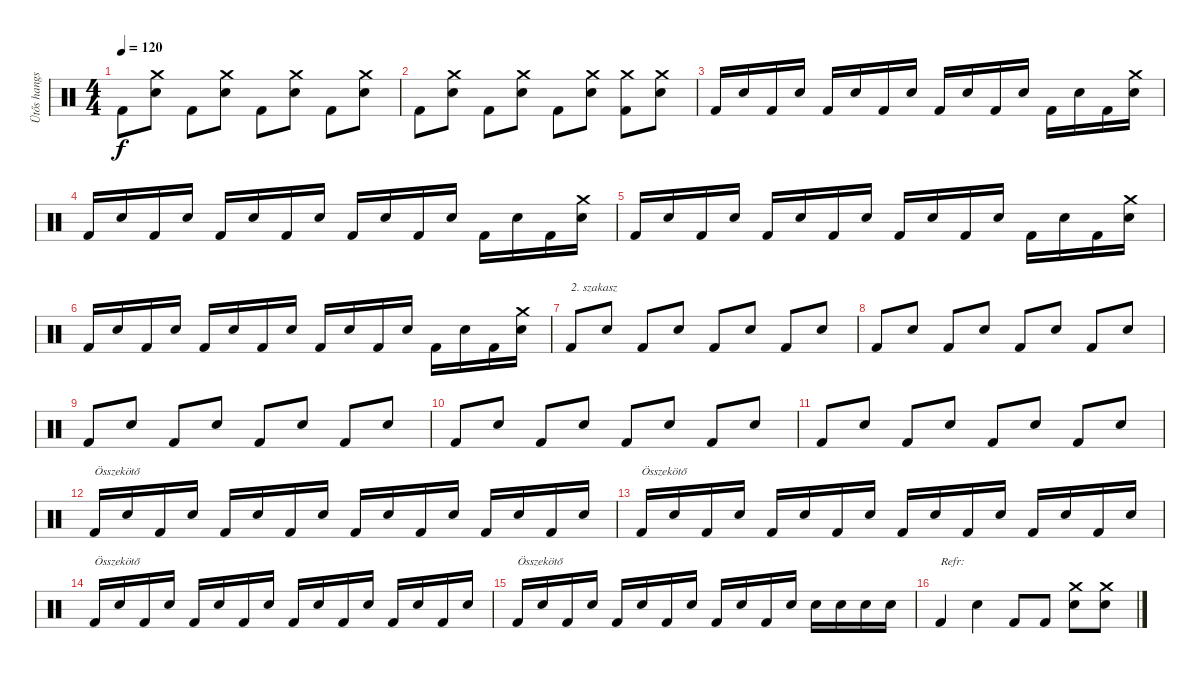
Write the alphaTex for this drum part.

\track ("Ütős hangszer" "Ütős hangs") {instrument percussion}
\staff {score}
\articulation defaults
\ts (4 4)
\tempo 120
\clef neutral
\ks c "Kick (hit) 2".8{dy f}
("Crash medium (hit)" "Snare (hit) 2").8 "Kick (hit) 2".8 ("Crash medium (hit)" "Snare (hit) 2").8 "Kick (hit) 2".8 ("Crash medium (hit)" "Snare (hit) 2").8 "Kick (hit) 2".8 ("Crash medium (hit)" "Snare (hit) 2").8 |
"Kick (hit) 2".8 ("Crash medium (hit)" "Snare (hit) 2").8 "Kick (hit) 2".8 ("Crash medium (hit)" "Snare (hit) 2").8 "Kick (hit) 2".8 ("Crash medium (hit)" "Snare (hit) 2").8 ("Crash medium (hit)" "Kick (hit) 2").8 ("Crash medium (hit)" "Snare (hit) 2").8 |
"Kick (hit) 2".16 "Snare (hit) 2".16 "Kick (hit) 2".16 "Snare (hit) 2".16 "Kick (hit) 2".16 "Snare (hit) 2".16 "Kick (hit) 2".16 "Snare (hit) 2".16 "Kick (hit) 2".16 "Snare (hit) 2".16 "Kick (hit) 2".16 "Snare (hit) 2".16 "Kick (hit) 2".16 "Snare (hit) 2".16 "Kick (hit) 2".16 ("Crash medium (hit)" "Snare (hit) 2").16 |
"Kick (hit) 2".16 "Snare (hit) 2".16 "Kick (hit) 2".16 "Snare (hit) 2".16 "Kick (hit) 2".16 "Snare (hit) 2".16 "Kick (hit) 2".16 "Snare (hit) 2".16 "Kick (hit) 2".16 "Snare (hit) 2".16 "Kick (hit) 2".16 "Snare (hit) 2".16 "Kick (hit) 2".16 "Snare (hit) 2".16 "Kick (hit) 2".16 ("Crash medium (hit)" "Snare (hit) 2").16 |
"Kick (hit) 2".16 "Snare (hit) 2".16 "Kick (hit) 2".16 "Snare (hit) 2".16 "Kick (hit) 2".16 "Snare (hit) 2".16 "Kick (hit) 2".16 "Snare (hit) 2".16 "Kick (hit) 2".16 "Snare (hit) 2".16 "Kick (hit) 2".16 "Snare (hit) 2".16 "Kick (hit) 2".16 "Snare (hit) 2".16 "Kick (hit) 2".16 ("Crash medium (hit)" "Snare (hit) 2").16 |
"Kick (hit) 2".16 "Snare (hit) 2".16 "Kick (hit) 2".16 "Snare (hit) 2".16 "Kick (hit) 2".16 "Snare (hit) 2".16 "Kick (hit) 2".16 "Snare (hit) 2".16 "Kick (hit) 2".16 "Snare (hit) 2".16 "Kick (hit) 2".16 "Snare (hit) 2".16 "Kick (hit) 2".16 "Snare (hit) 2".16 "Kick (hit) 2".16 ("Crash medium (hit)" "Snare (hit) 2").16 |
"Kick (hit) 2".8{txt "2. szakasz"} "Snare (hit) 2".8 "Kick (hit) 2".8 "Snare (hit) 2".8 "Kick (hit) 2".8 "Snare (hit) 2".8 "Kick (hit) 2".8 "Snare (hit) 2".8 |
"Kick (hit) 2".8 "Snare (hit) 2".8 "Kick (hit) 2".8 "Snare (hit) 2".8 "Kick (hit) 2".8 "Snare (hit) 2".8 "Kick (hit) 2".8 "Snare (hit) 2".8 |
"Kick (hit) 2".8 "Snare (hit) 2".8 "Kick (hit) 2".8 "Snare (hit) 2".8 "Kick (hit) 2".8 "Snare (hit) 2".8 "Kick (hit) 2".8 "Snare (hit) 2".8 |
"Kick (hit) 2".8 "Snare (hit) 2".8 "Kick (hit) 2".8 "Snare (hit) 2".8 "Kick (hit) 2".8 "Snare (hit) 2".8 "Kick (hit) 2".8 "Snare (hit) 2".8 |
"Kick (hit) 2".8 "Snare (hit) 2".8 "Kick (hit) 2".8 "Snare (hit) 2".8 "Kick (hit) 2".8 "Snare (hit) 2".8 "Kick (hit) 2".8 "Snare (hit) 2".8 |
"Kick (hit) 2".16{txt "Összekötő"} "Snare (hit) 2".16 "Kick (hit) 2".16 "Snare (hit) 2".16 "Kick (hit) 2".16 "Snare (hit) 2".16 "Kick (hit) 2".16 "Snare (hit) 2".16 "Kick (hit) 2".16 "Snare (hit) 2".16 "Kick (hit) 2".16 "Snare (hit) 2".16 "Kick (hit) 2".16 "Snare (hit) 2".16 "Kick (hit) 2".16 "Snare (hit) 2".16 |
"Kick (hit) 2".16{txt "Összekötő"} "Snare (hit) 2".16 "Kick (hit) 2".16 "Snare (hit) 2".16 "Kick (hit) 2".16 "Snare (hit) 2".16 "Kick (hit) 2".16 "Snare (hit) 2".16 "Kick (hit) 2".16 "Snare (hit) 2".16 "Kick (hit) 2".16 "Snare (hit) 2".16 "Kick (hit) 2".16 "Snare (hit) 2".16 "Kick (hit) 2".16 "Snare (hit) 2".16 |
"Kick (hit) 2".16{txt "Összekötő"} "Snare (hit) 2".16 "Kick (hit) 2".16 "Snare (hit) 2".16 "Kick (hit) 2".16 "Snare (hit) 2".16 "Kick (hit) 2".16 "Snare (hit) 2".16 "Kick (hit) 2".16 "Snare (hit) 2".16 "Kick (hit) 2".16 "Snare (hit) 2".16 "Kick (hit) 2".16 "Snare (hit) 2".16 "Kick (hit) 2".16 "Snare (hit) 2".16 |
"Kick (hit) 2".16{txt "Összekötő"} "Snare (hit) 2".16 "Kick (hit) 2".16 "Snare (hit) 2".16 "Kick (hit) 2".16 "Snare (hit) 2".16 "Kick (hit) 2".16 "Snare (hit) 2".16 "Kick (hit) 2".16 "Snare (hit) 2".16 "Kick (hit) 2".16 "Snare (hit) 2".16 "Snare (hit) 2".16 "Snare (hit) 2".16 "Snare (hit) 2".16 "Snare (hit) 2".16 |
"Kick (hit) 2".4{txt "Refr:"} "Snare (hit) 2".4 "Kick (hit) 2".8 "Kick (hit) 2".8 ("Crash medium (hit)" "Snare (hit) 2").8 ("Crash medium (hit)" "Snare (hit) 2").8
